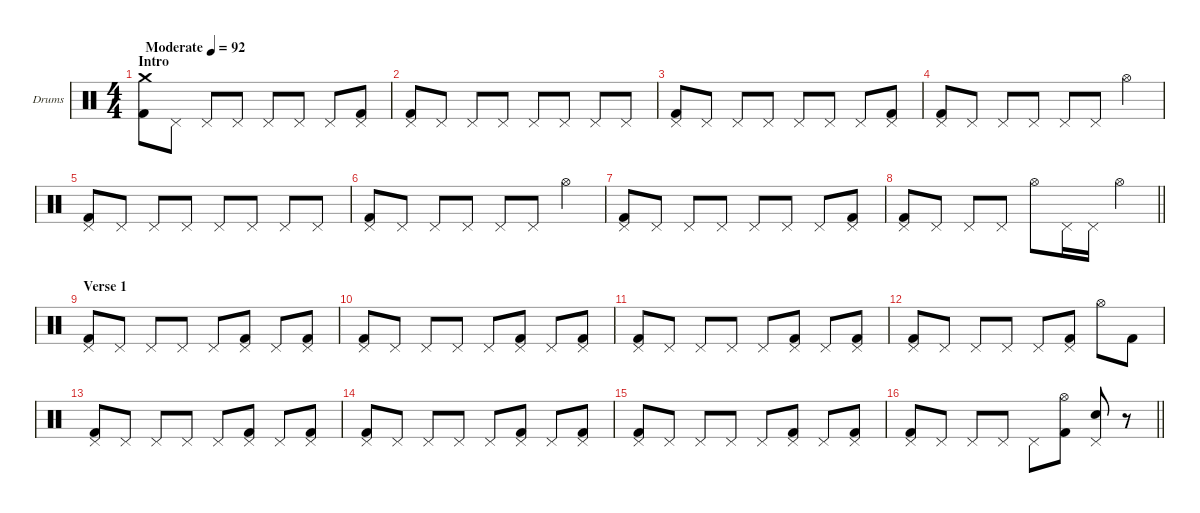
\hideDynamics
\bracketExtendMode nobrackets
\firstSystemTrackNameOrientation horizontal
\otherSystemsTrackNameOrientation horizontal
\track ("Drumkit" "Drums") {instrument percussion}
\staff {score}
\articulation defaults
\ts (4 4)
\beaming (8 2 2 2 2)
\section ("" "Intro")
\tempo (92 "Moderate")
\clef neutral
\ks aminor
("Crash medium (hit)" "Kick (hit) 2").8{dy f} "Pedal Hi-Hat (hit)".8{dy p} "Pedal Hi-Hat (hit)".8{dy f} "Pedal Hi-Hat (hit)".8{dy p} "Pedal Hi-Hat (hit)".8{dy f} "Pedal Hi-Hat (hit)".8{dy p} "Pedal Hi-Hat (hit)".8{dy f} ("Pedal Hi-Hat (hit)" "Kick (hit) 2").8{dy p} |
("Pedal Hi-Hat (hit)" "Kick (hit) 2").8{dy f} "Pedal Hi-Hat (hit)".8{dy p} "Pedal Hi-Hat (hit)".8{dy f} "Pedal Hi-Hat (hit)".8{dy p} "Pedal Hi-Hat (hit)".8{dy f} "Pedal Hi-Hat (hit)".8{dy p} "Pedal Hi-Hat (hit)".8{dy f} "Pedal Hi-Hat (hit)".8{dy p} |
("Pedal Hi-Hat (hit)" "Kick (hit) 2").8{dy f} "Pedal Hi-Hat (hit)".8{dy p} "Pedal Hi-Hat (hit)".8{dy f} "Pedal Hi-Hat (hit)".8{dy p} "Pedal Hi-Hat (hit)".8{dy f} "Pedal Hi-Hat (hit)".8{dy p} "Pedal Hi-Hat (hit)".8{dy f} ("Pedal Hi-Hat (hit)" "Kick (hit) 2").8{dy p} |
("Pedal Hi-Hat (hit)" "Kick (hit) 2").8{dy f} "Pedal Hi-Hat (hit)".8{dy p} "Pedal Hi-Hat (hit)".8{dy f} "Pedal Hi-Hat (hit)".8{dy p} "Pedal Hi-Hat (hit)".8{dy f} "Pedal Hi-Hat (hit)".8{dy p} "Hi-Hat (open)".4{dy mp} |
("Pedal Hi-Hat (hit)" "Kick (hit) 2").8{dy f} "Pedal Hi-Hat (hit)".8{dy p} "Pedal Hi-Hat (hit)".8{dy f} "Pedal Hi-Hat (hit)".8{dy p} "Pedal Hi-Hat (hit)".8{dy f} "Pedal Hi-Hat (hit)".8{dy p} "Pedal Hi-Hat (hit)".8{dy f} "Pedal Hi-Hat (hit)".8{dy p} |
("Pedal Hi-Hat (hit)" "Kick (hit) 2").8{dy f} "Pedal Hi-Hat (hit)".8{dy p} "Pedal Hi-Hat (hit)".8{dy f} "Pedal Hi-Hat (hit)".8{dy p} "Pedal Hi-Hat (hit)".8{dy f} "Pedal Hi-Hat (hit)".8{dy p} "Hi-Hat (open)".4{dy mp} |
("Pedal Hi-Hat (hit)" "Kick (hit) 2").8{dy f} "Pedal Hi-Hat (hit)".8{dy p} "Pedal Hi-Hat (hit)".8{dy f} "Pedal Hi-Hat (hit)".8{dy p} "Pedal Hi-Hat (hit)".8{dy f} "Pedal Hi-Hat (hit)".8{dy p} "Pedal Hi-Hat (hit)".8{dy f} ("Pedal Hi-Hat (hit)" "Kick (hit) 2").8{dy p} |
\barLineRight lightlight
("Pedal Hi-Hat (hit)" "Kick (hit) 2").8{dy f} "Pedal Hi-Hat (hit)".8{dy p} "Pedal Hi-Hat (hit)".8{dy f} "Pedal Hi-Hat (hit)".8{dy p} "Hi-Hat (open)".8{dy mp} "Pedal Hi-Hat (hit)".16{dy p} "Pedal Hi-Hat (hit)".16{dy mp} "Hi-Hat (open)".4{dy mf} |
\section ("" "Verse 1")
("Pedal Hi-Hat (hit)" "Kick (hit) 2").8{dy f} "Pedal Hi-Hat (hit)".8{dy p} "Pedal Hi-Hat (hit)".8{dy f} "Pedal Hi-Hat (hit)".8{dy p} "Pedal Hi-Hat (hit)".8{dy f} ("Pedal Hi-Hat (hit)" "Kick (hit) 2").8{dy p} "Pedal Hi-Hat (hit)".8{dy f} ("Pedal Hi-Hat (hit)" "Kick (hit) 2").8{dy p} |
("Pedal Hi-Hat (hit)" "Kick (hit) 2").8{dy f} "Pedal Hi-Hat (hit)".8{dy p} "Pedal Hi-Hat (hit)".8{dy f} "Pedal Hi-Hat (hit)".8{dy p} "Pedal Hi-Hat (hit)".8{dy f} ("Pedal Hi-Hat (hit)" "Kick (hit) 2").8{dy p} "Pedal Hi-Hat (hit)".8{dy f} ("Pedal Hi-Hat (hit)" "Kick (hit) 2").8{dy p} |
("Pedal Hi-Hat (hit)" "Kick (hit) 2").8{dy f} "Pedal Hi-Hat (hit)".8{dy p} "Pedal Hi-Hat (hit)".8{dy f} "Pedal Hi-Hat (hit)".8{dy p} "Pedal Hi-Hat (hit)".8{dy f} ("Pedal Hi-Hat (hit)" "Kick (hit) 2").8{dy p} "Pedal Hi-Hat (hit)".8{dy f} ("Pedal Hi-Hat (hit)" "Kick (hit) 2").8{dy p} |
("Pedal Hi-Hat (hit)" "Kick (hit) 2").8{dy f} "Pedal Hi-Hat (hit)".8{dy p} "Pedal Hi-Hat (hit)".8{dy f} "Pedal Hi-Hat (hit)".8{dy p} "Pedal Hi-Hat (hit)".8{dy f} ("Pedal Hi-Hat (hit)" "Kick (hit) 2").8{dy p} "Hi-Hat (open)".8{dy mp} "Kick (hit) 2".8{dy f} |
("Pedal Hi-Hat (hit)" "Kick (hit) 2").8 "Pedal Hi-Hat (hit)".8{dy p} "Pedal Hi-Hat (hit)".8{dy f} "Pedal Hi-Hat (hit)".8{dy p} "Pedal Hi-Hat (hit)".8{dy f} ("Pedal Hi-Hat (hit)" "Kick (hit) 2").8{dy p} "Pedal Hi-Hat (hit)".8{dy f} ("Pedal Hi-Hat (hit)" "Kick (hit) 2").8{dy p} |
("Pedal Hi-Hat (hit)" "Kick (hit) 2").8{dy f} "Pedal Hi-Hat (hit)".8{dy p} "Pedal Hi-Hat (hit)".8{dy f} "Pedal Hi-Hat (hit)".8{dy p} "Pedal Hi-Hat (hit)".8{dy f} ("Pedal Hi-Hat (hit)" "Kick (hit) 2").8{dy p} "Pedal Hi-Hat (hit)".8{dy f} ("Pedal Hi-Hat (hit)" "Kick (hit) 2").8{dy p} |
("Pedal Hi-Hat (hit)" "Kick (hit) 2").8{dy f} "Pedal Hi-Hat (hit)".8{dy p} "Pedal Hi-Hat (hit)".8{dy f} "Pedal Hi-Hat (hit)".8{dy p} "Pedal Hi-Hat (hit)".8{dy f} ("Pedal Hi-Hat (hit)" "Kick (hit) 2").8{dy p} "Pedal Hi-Hat (hit)".8{dy f} ("Pedal Hi-Hat (hit)" "Kick (hit) 2").8{dy p} |
\barLineRight lightlight
("Pedal Hi-Hat (hit)" "Kick (hit) 2").8{dy f} "Pedal Hi-Hat (hit)".8{dy p} "Pedal Hi-Hat (hit)".8{dy f} "Pedal Hi-Hat (hit)".8{dy p} "Pedal Hi-Hat (hit)".8{dy f} ("Hi-Hat (open)" "Kick (hit) 2").8{dy mf} ("Pedal Hi-Hat (hit)" "Snare (hit) 2").8{dy mp} r.8
